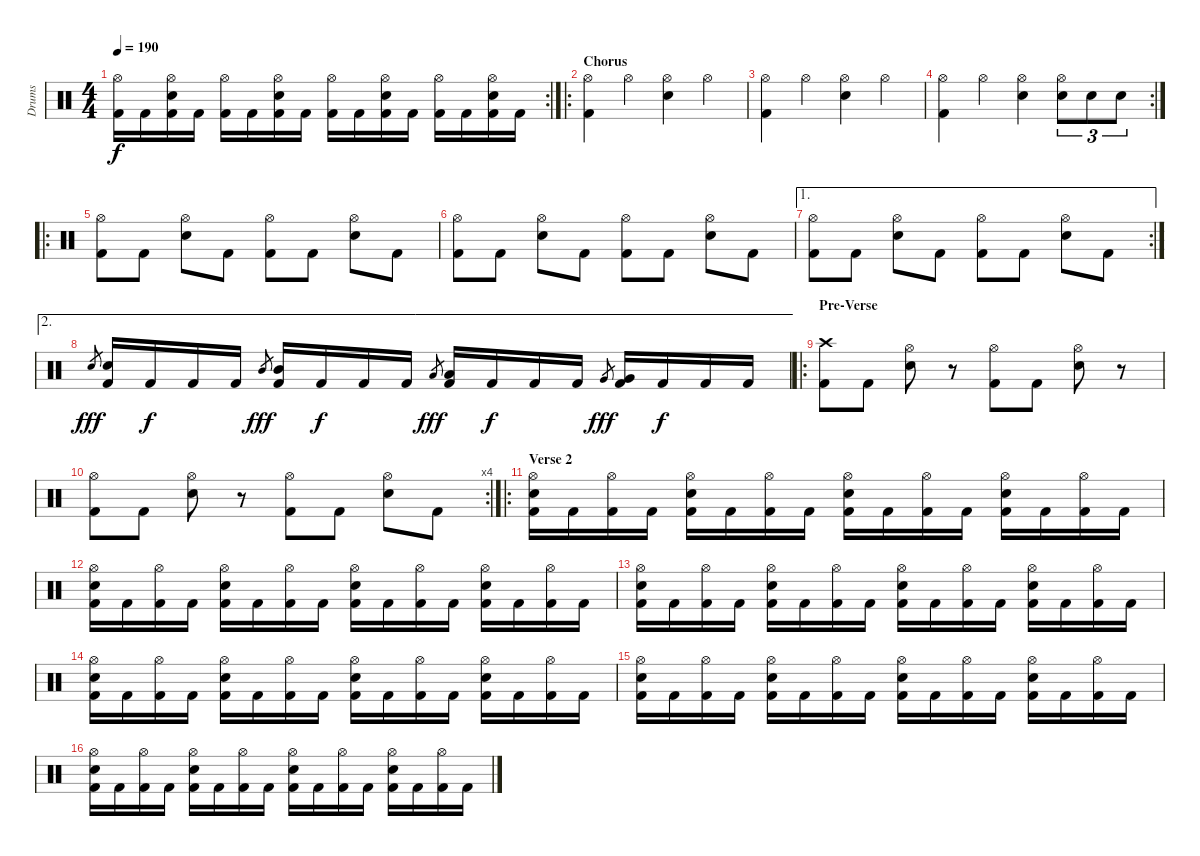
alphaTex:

\track ("Drums" "Drums") {instrument percussion}
\staff {score}
\articulation defaults
\rc 2
\ts (4 4)
\tempo 190
\clef neutral
\ks c
("Kick (hit) 2" "Hi-Hat (open)").16{dy f} "Kick (hit) 2".16 ("Kick (hit) 2" "Hi-Hat (open)" "Electric Snare (hit)").16 "Kick (hit) 2".16 ("Kick (hit) 2" "Hi-Hat (open)").16 "Kick (hit) 2".16 ("Kick (hit) 2" "Hi-Hat (open)" "Electric Snare (hit)").16 "Kick (hit) 2".16 ("Kick (hit) 2" "Hi-Hat (open)").16 "Kick (hit) 2".16 ("Kick (hit) 2" "Hi-Hat (open)" "Electric Snare (hit)").16 "Kick (hit) 2".16 ("Kick (hit) 2" "Hi-Hat (open)").16 "Kick (hit) 2".16 ("Kick (hit) 2" "Hi-Hat (open)" "Electric Snare (hit)").16 "Kick (hit) 2".16 |
\ro
\section ("" "Chorus")
("Hi-Hat (open)" "Kick (hit) 2").4 "Hi-Hat (open)".4 ("Hi-Hat (open)" "Electric Snare (hit)").4 "Hi-Hat (open)".4 |
("Hi-Hat (open)" "Kick (hit) 2").4 "Hi-Hat (open)".4 ("Hi-Hat (open)" "Electric Snare (hit)").4 "Hi-Hat (open)".4 |
\rc 2
("Hi-Hat (open)" "Kick (hit) 2").4 "Hi-Hat (open)".4 ("Hi-Hat (open)" "Electric Snare (hit)").4 ("Hi-Hat (open)" "Electric Snare (hit)").8{tu (3 2)} "Electric Snare (hit)".8{tu (3 2)} "Electric Snare (hit)".8{tu (3 2)} |
\ro
("Hi-Hat (open)" "Kick (hit) 2").8 "Kick (hit) 2".8 ("Hi-Hat (open)" "Electric Snare (hit)").8 "Kick (hit) 2".8 ("Hi-Hat (open)" "Kick (hit) 2").8 "Kick (hit) 2".8 ("Hi-Hat (open)" "Electric Snare (hit)").8 "Kick (hit) 2".8 |
("Hi-Hat (open)" "Kick (hit) 2").8 "Kick (hit) 2".8 ("Hi-Hat (open)" "Electric Snare (hit)").8 "Kick (hit) 2".8 ("Hi-Hat (open)" "Kick (hit) 2").8 "Kick (hit) 2".8 ("Hi-Hat (open)" "Electric Snare (hit)").8 "Kick (hit) 2".8 |
\ae 1
\rc 2
("Hi-Hat (open)" "Kick (hit) 2").8 "Kick (hit) 2".8 ("Hi-Hat (open)" "Electric Snare (hit)").8 "Kick (hit) 2".8 ("Hi-Hat (open)" "Kick (hit) 2").8 "Kick (hit) 2".8 ("Hi-Hat (open)" "Electric Snare (hit)").8 "Kick (hit) 2".8 |
\ae 2 "Electric Snare (hit)".8{gr dy fff}
("Electric Snare (hit)" "Kick (hit) 2").16 "Kick (hit) 2".16{dy f} "Kick (hit) 2".16 "Kick (hit) 2".16 "Mid Tom (hit)".8{gr dy fff} ("Mid Tom (hit)" "Kick (hit) 2").16 "Kick (hit) 2".16{dy f} "Kick (hit) 2".16 "Kick (hit) 2".16 "Low Tom (hit)".8{gr dy fff} ("Low Tom (hit)" "Kick (hit) 2").16 "Kick (hit) 2".16{dy f} "Kick (hit) 2".16 "Kick (hit) 2".16 "Very Low Tom (hit)".8{gr dy fff} ("Very Low Tom (hit)" "Kick (hit) 2").16 "Kick (hit) 2".16{dy f} "Kick (hit) 2".16 "Kick (hit) 2".16 |
\ro
\section ("" "Pre-Verse")
("Crash high (hit)" "Kick (hit) 2").8 "Kick (hit) 2".8 ("Hi-Hat (open)" "Electric Snare (hit)").8 r.8 ("Hi-Hat (open)" "Kick (hit) 2").8 "Kick (hit) 2".8 ("Hi-Hat (open)" "Electric Snare (hit)").8 r.8 |
\rc 4
("Hi-Hat (open)" "Kick (hit) 2").8 "Kick (hit) 2".8 ("Hi-Hat (open)" "Electric Snare (hit)").8 r.8 ("Hi-Hat (open)" "Kick (hit) 2").8 "Kick (hit) 2".8 ("Hi-Hat (open)" "Electric Snare (hit)").8 "Kick (hit) 2".8 |
\ro
\section ("" "Verse 2")
("Kick (hit) 2" "Hi-Hat (open)" "Electric Snare (hit)").16 "Kick (hit) 2".16 ("Kick (hit) 2" "Hi-Hat (open)").16 "Kick (hit) 2".16 ("Kick (hit) 2" "Hi-Hat (open)" "Electric Snare (hit)").16 "Kick (hit) 2".16 ("Kick (hit) 2" "Hi-Hat (open)").16 "Kick (hit) 2".16 ("Kick (hit) 2" "Hi-Hat (open)" "Electric Snare (hit)").16 "Kick (hit) 2".16 ("Kick (hit) 2" "Hi-Hat (open)").16 "Kick (hit) 2".16 ("Kick (hit) 2" "Hi-Hat (open)" "Electric Snare (hit)").16 "Kick (hit) 2".16 ("Kick (hit) 2" "Hi-Hat (open)").16 "Kick (hit) 2".16 |
("Kick (hit) 2" "Hi-Hat (open)" "Electric Snare (hit)").16 "Kick (hit) 2".16 ("Kick (hit) 2" "Hi-Hat (open)").16 "Kick (hit) 2".16 ("Kick (hit) 2" "Hi-Hat (open)" "Electric Snare (hit)").16 "Kick (hit) 2".16 ("Kick (hit) 2" "Hi-Hat (open)").16 "Kick (hit) 2".16 ("Kick (hit) 2" "Hi-Hat (open)" "Electric Snare (hit)").16 "Kick (hit) 2".16 ("Kick (hit) 2" "Hi-Hat (open)").16 "Kick (hit) 2".16 ("Kick (hit) 2" "Hi-Hat (open)" "Electric Snare (hit)").16 "Kick (hit) 2".16 ("Kick (hit) 2" "Hi-Hat (open)").16 "Kick (hit) 2".16 |
("Kick (hit) 2" "Hi-Hat (open)" "Electric Snare (hit)").16 "Kick (hit) 2".16 ("Kick (hit) 2" "Hi-Hat (open)").16 "Kick (hit) 2".16 ("Kick (hit) 2" "Hi-Hat (open)" "Electric Snare (hit)").16 "Kick (hit) 2".16 ("Kick (hit) 2" "Hi-Hat (open)").16 "Kick (hit) 2".16 ("Kick (hit) 2" "Hi-Hat (open)" "Electric Snare (hit)").16 "Kick (hit) 2".16 ("Kick (hit) 2" "Hi-Hat (open)").16 "Kick (hit) 2".16 ("Kick (hit) 2" "Hi-Hat (open)" "Electric Snare (hit)").16 "Kick (hit) 2".16 ("Kick (hit) 2" "Hi-Hat (open)").16 "Kick (hit) 2".16 |
("Kick (hit) 2" "Hi-Hat (open)" "Electric Snare (hit)").16 "Kick (hit) 2".16 ("Kick (hit) 2" "Hi-Hat (open)").16 "Kick (hit) 2".16 ("Kick (hit) 2" "Hi-Hat (open)" "Electric Snare (hit)").16 "Kick (hit) 2".16 ("Kick (hit) 2" "Hi-Hat (open)").16 "Kick (hit) 2".16 ("Kick (hit) 2" "Hi-Hat (open)" "Electric Snare (hit)").16 "Kick (hit) 2".16 ("Kick (hit) 2" "Hi-Hat (open)").16 "Kick (hit) 2".16 ("Kick (hit) 2" "Hi-Hat (open)" "Electric Snare (hit)").16 "Kick (hit) 2".16 ("Kick (hit) 2" "Hi-Hat (open)").16 "Kick (hit) 2".16 |
("Kick (hit) 2" "Hi-Hat (open)" "Electric Snare (hit)").16 "Kick (hit) 2".16 ("Kick (hit) 2" "Hi-Hat (open)").16 "Kick (hit) 2".16 ("Kick (hit) 2" "Hi-Hat (open)" "Electric Snare (hit)").16 "Kick (hit) 2".16 ("Kick (hit) 2" "Hi-Hat (open)").16 "Kick (hit) 2".16 ("Kick (hit) 2" "Hi-Hat (open)" "Electric Snare (hit)").16 "Kick (hit) 2".16 ("Kick (hit) 2" "Hi-Hat (open)").16 "Kick (hit) 2".16 ("Kick (hit) 2" "Hi-Hat (open)" "Electric Snare (hit)").16 "Kick (hit) 2".16 ("Kick (hit) 2" "Hi-Hat (open)").16 "Kick (hit) 2".16 |
("Kick (hit) 2" "Hi-Hat (open)" "Electric Snare (hit)").16 "Kick (hit) 2".16 ("Kick (hit) 2" "Hi-Hat (open)").16 "Kick (hit) 2".16 ("Kick (hit) 2" "Hi-Hat (open)" "Electric Snare (hit)").16 "Kick (hit) 2".16 ("Kick (hit) 2" "Hi-Hat (open)").16 "Kick (hit) 2".16 ("Kick (hit) 2" "Hi-Hat (open)" "Electric Snare (hit)").16 "Kick (hit) 2".16 ("Kick (hit) 2" "Hi-Hat (open)").16 "Kick (hit) 2".16 ("Kick (hit) 2" "Hi-Hat (open)" "Electric Snare (hit)").16 "Kick (hit) 2".16 ("Kick (hit) 2" "Hi-Hat (open)").16 "Kick (hit) 2".16
